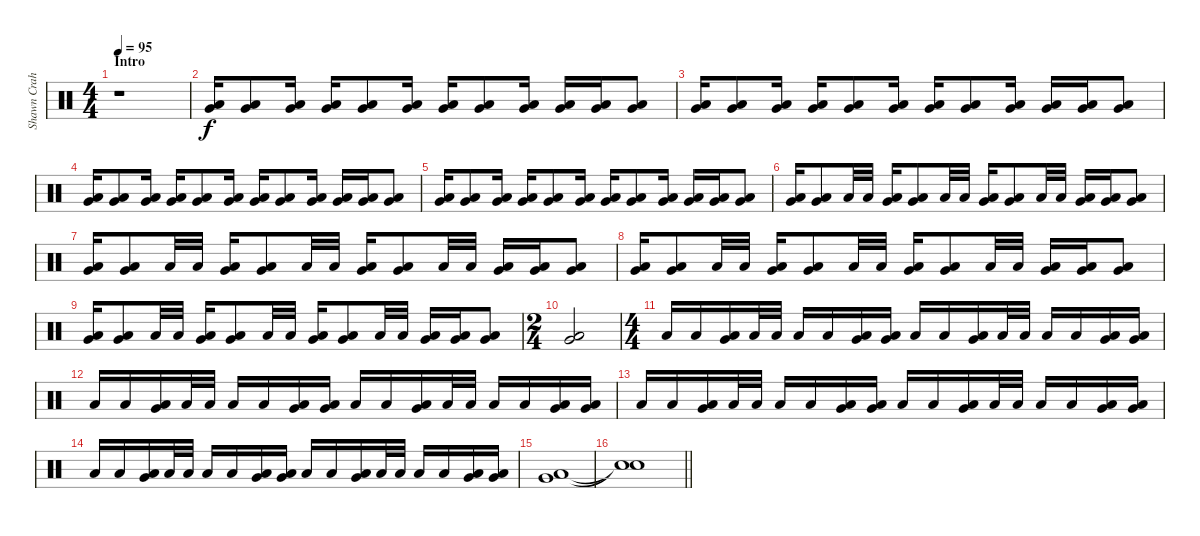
\track ("Shawn Crahan" "Shawn Crah") {instrument percussion}
\staff {score}
\articulation defaults
\ts (4 4)
\section ("" "Intro")
\tempo 95
\clef neutral
\ks c
r.1{dy f} |
("Very Low Tom (hit)" "Low Floor Tom (hit)").16 ("Very Low Tom (hit)" "Low Floor Tom (hit)").8 ("Very Low Tom (hit)" "Low Floor Tom (hit)").16 ("Very Low Tom (hit)" "Low Floor Tom (hit)").16 ("Very Low Tom (hit)" "Low Floor Tom (hit)").8 ("Very Low Tom (hit)" "Low Floor Tom (hit)").16 ("Very Low Tom (hit)" "Low Floor Tom (hit)").16 ("Very Low Tom (hit)" "Low Floor Tom (hit)").8 ("Very Low Tom (hit)" "Low Floor Tom (hit)").16 ("Very Low Tom (hit)" "Low Floor Tom (hit)").16 ("Very Low Tom (hit)" "Low Floor Tom (hit)").16 ("Very Low Tom (hit)" "Low Floor Tom (hit)").8 |
("Very Low Tom (hit)" "Low Floor Tom (hit)").16 ("Very Low Tom (hit)" "Low Floor Tom (hit)").8 ("Very Low Tom (hit)" "Low Floor Tom (hit)").16 ("Very Low Tom (hit)" "Low Floor Tom (hit)").16 ("Very Low Tom (hit)" "Low Floor Tom (hit)").8 ("Very Low Tom (hit)" "Low Floor Tom (hit)").16 ("Very Low Tom (hit)" "Low Floor Tom (hit)").16 ("Very Low Tom (hit)" "Low Floor Tom (hit)").8 ("Very Low Tom (hit)" "Low Floor Tom (hit)").16 ("Very Low Tom (hit)" "Low Floor Tom (hit)").16 ("Very Low Tom (hit)" "Low Floor Tom (hit)").16 ("Very Low Tom (hit)" "Low Floor Tom (hit)").8 |
("Very Low Tom (hit)" "Low Floor Tom (hit)").16 ("Very Low Tom (hit)" "Low Floor Tom (hit)").8 ("Very Low Tom (hit)" "Low Floor Tom (hit)").16 ("Very Low Tom (hit)" "Low Floor Tom (hit)").16 ("Very Low Tom (hit)" "Low Floor Tom (hit)").8 ("Very Low Tom (hit)" "Low Floor Tom (hit)").16 ("Very Low Tom (hit)" "Low Floor Tom (hit)").16 ("Very Low Tom (hit)" "Low Floor Tom (hit)").8 ("Very Low Tom (hit)" "Low Floor Tom (hit)").16 ("Very Low Tom (hit)" "Low Floor Tom (hit)").16 ("Very Low Tom (hit)" "Low Floor Tom (hit)").16 ("Very Low Tom (hit)" "Low Floor Tom (hit)").8 |
("Very Low Tom (hit)" "Low Floor Tom (hit)").16 ("Very Low Tom (hit)" "Low Floor Tom (hit)").8 ("Very Low Tom (hit)" "Low Floor Tom (hit)").16 ("Very Low Tom (hit)" "Low Floor Tom (hit)").16 ("Very Low Tom (hit)" "Low Floor Tom (hit)").8 ("Very Low Tom (hit)" "Low Floor Tom (hit)").16 ("Very Low Tom (hit)" "Low Floor Tom (hit)").16 ("Very Low Tom (hit)" "Low Floor Tom (hit)").8 ("Very Low Tom (hit)" "Low Floor Tom (hit)").16 ("Very Low Tom (hit)" "Low Floor Tom (hit)").16 ("Very Low Tom (hit)" "Low Floor Tom (hit)").16 ("Very Low Tom (hit)" "Low Floor Tom (hit)").8 |
("Very Low Tom (hit)" "Low Floor Tom (hit)").16 ("Very Low Tom (hit)" "Low Floor Tom (hit)").8 "Low Floor Tom (hit)".32 "Low Floor Tom (hit)".32 ("Very Low Tom (hit)" "Low Floor Tom (hit)").16 ("Very Low Tom (hit)" "Low Floor Tom (hit)").8 "Low Floor Tom (hit)".32 "Low Floor Tom (hit)".32 ("Very Low Tom (hit)" "Low Floor Tom (hit)").16 ("Very Low Tom (hit)" "Low Floor Tom (hit)").8 "Low Floor Tom (hit)".32 "Low Floor Tom (hit)".32 ("Very Low Tom (hit)" "Low Floor Tom (hit)").16 ("Very Low Tom (hit)" "Low Floor Tom (hit)").16 ("Very Low Tom (hit)" "Low Floor Tom (hit)").8 |
("Very Low Tom (hit)" "Low Floor Tom (hit)").16 ("Very Low Tom (hit)" "Low Floor Tom (hit)").8 "Low Floor Tom (hit)".32 "Low Floor Tom (hit)".32 ("Very Low Tom (hit)" "Low Floor Tom (hit)").16 ("Very Low Tom (hit)" "Low Floor Tom (hit)").8 "Low Floor Tom (hit)".32 "Low Floor Tom (hit)".32 ("Very Low Tom (hit)" "Low Floor Tom (hit)").16 ("Very Low Tom (hit)" "Low Floor Tom (hit)").8 "Low Floor Tom (hit)".32 "Low Floor Tom (hit)".32 ("Very Low Tom (hit)" "Low Floor Tom (hit)").16 ("Very Low Tom (hit)" "Low Floor Tom (hit)").16 ("Very Low Tom (hit)" "Low Floor Tom (hit)").8 |
("Very Low Tom (hit)" "Low Floor Tom (hit)").16 ("Very Low Tom (hit)" "Low Floor Tom (hit)").8 "Low Floor Tom (hit)".32 "Low Floor Tom (hit)".32 ("Very Low Tom (hit)" "Low Floor Tom (hit)").16 ("Very Low Tom (hit)" "Low Floor Tom (hit)").8 "Low Floor Tom (hit)".32 "Low Floor Tom (hit)".32 ("Very Low Tom (hit)" "Low Floor Tom (hit)").16 ("Very Low Tom (hit)" "Low Floor Tom (hit)").8 "Low Floor Tom (hit)".32 "Low Floor Tom (hit)".32 ("Very Low Tom (hit)" "Low Floor Tom (hit)").16 ("Very Low Tom (hit)" "Low Floor Tom (hit)").16 ("Very Low Tom (hit)" "Low Floor Tom (hit)").8 |
("Very Low Tom (hit)" "Low Floor Tom (hit)").16 ("Very Low Tom (hit)" "Low Floor Tom (hit)").8 "Low Floor Tom (hit)".32 "Low Floor Tom (hit)".32 ("Very Low Tom (hit)" "Low Floor Tom (hit)").16 ("Very Low Tom (hit)" "Low Floor Tom (hit)").8 "Low Floor Tom (hit)".32 "Low Floor Tom (hit)".32 ("Very Low Tom (hit)" "Low Floor Tom (hit)").16 ("Very Low Tom (hit)" "Low Floor Tom (hit)").8 "Low Floor Tom (hit)".32 "Low Floor Tom (hit)".32 ("Very Low Tom (hit)" "Low Floor Tom (hit)").16 ("Very Low Tom (hit)" "Low Floor Tom (hit)").16 ("Very Low Tom (hit)" "Low Floor Tom (hit)").8 |
\ts (2 4)
("Very Low Tom (hit)" "Low Floor Tom (hit)").2 |
\ts (4 4)
"Low Floor Tom (hit)".16 "Low Floor Tom (hit)".16 ("Very Low Tom (hit)" "Low Floor Tom (hit)").16 "Low Floor Tom (hit)".32 "Low Floor Tom (hit)".32 "Low Floor Tom (hit)".16 "Low Floor Tom (hit)".16 ("Very Low Tom (hit)" "Low Floor Tom (hit)").16 ("Very Low Tom (hit)" "Low Floor Tom (hit)").16 "Low Floor Tom (hit)".16 "Low Floor Tom (hit)".16 ("Very Low Tom (hit)" "Low Floor Tom (hit)").16 "Low Floor Tom (hit)".32 "Low Floor Tom (hit)".32 "Low Floor Tom (hit)".16 "Low Floor Tom (hit)".16 ("Very Low Tom (hit)" "Low Floor Tom (hit)").16 ("Very Low Tom (hit)" "Low Floor Tom (hit)").16 |
"Low Floor Tom (hit)".16 "Low Floor Tom (hit)".16 ("Very Low Tom (hit)" "Low Floor Tom (hit)").16 "Low Floor Tom (hit)".32 "Low Floor Tom (hit)".32 "Low Floor Tom (hit)".16 "Low Floor Tom (hit)".16 ("Very Low Tom (hit)" "Low Floor Tom (hit)").16 ("Very Low Tom (hit)" "Low Floor Tom (hit)").16 "Low Floor Tom (hit)".16 "Low Floor Tom (hit)".16 ("Very Low Tom (hit)" "Low Floor Tom (hit)").16 "Low Floor Tom (hit)".32 "Low Floor Tom (hit)".32 "Low Floor Tom (hit)".16 "Low Floor Tom (hit)".16 ("Very Low Tom (hit)" "Low Floor Tom (hit)").16 ("Very Low Tom (hit)" "Low Floor Tom (hit)").16 |
"Low Floor Tom (hit)".16 "Low Floor Tom (hit)".16 ("Very Low Tom (hit)" "Low Floor Tom (hit)").16 "Low Floor Tom (hit)".32 "Low Floor Tom (hit)".32 "Low Floor Tom (hit)".16 "Low Floor Tom (hit)".16 ("Very Low Tom (hit)" "Low Floor Tom (hit)").16 ("Very Low Tom (hit)" "Low Floor Tom (hit)").16 "Low Floor Tom (hit)".16 "Low Floor Tom (hit)".16 ("Very Low Tom (hit)" "Low Floor Tom (hit)").16 "Low Floor Tom (hit)".32 "Low Floor Tom (hit)".32 "Low Floor Tom (hit)".16 "Low Floor Tom (hit)".16 ("Very Low Tom (hit)" "Low Floor Tom (hit)").16 ("Very Low Tom (hit)" "Low Floor Tom (hit)").16 |
"Low Floor Tom (hit)".16 "Low Floor Tom (hit)".16 ("Very Low Tom (hit)" "Low Floor Tom (hit)").16 "Low Floor Tom (hit)".32 "Low Floor Tom (hit)".32 "Low Floor Tom (hit)".16 "Low Floor Tom (hit)".16 ("Very Low Tom (hit)" "Low Floor Tom (hit)").16 ("Very Low Tom (hit)" "Low Floor Tom (hit)").16 "Low Floor Tom (hit)".16 "Low Floor Tom (hit)".16 ("Very Low Tom (hit)" "Low Floor Tom (hit)").16 "Low Floor Tom (hit)".32 "Low Floor Tom (hit)".32 "Low Floor Tom (hit)".16 "Low Floor Tom (hit)".16 ("Very Low Tom (hit)" "Low Floor Tom (hit)").16 ("Very Low Tom (hit)" "Low Floor Tom (hit)").16 |
("Very Low Tom (hit)" "Low Floor Tom (hit)").1 |
\barLineRight lightlight
("Snare (hit)"{t} "Snare (hit)"{t}).1
